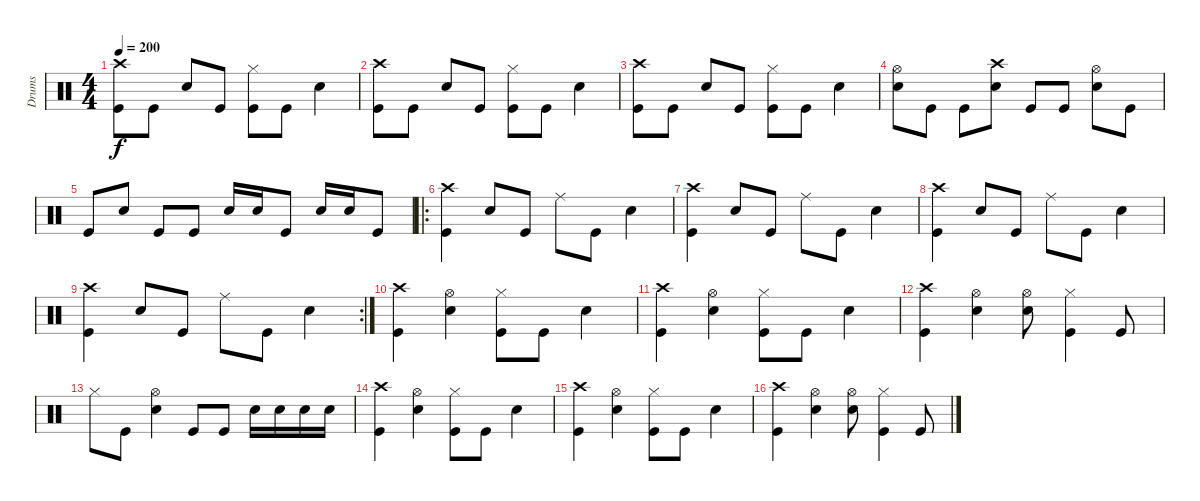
\track ("Drums" "Drums") {instrument percussion}
\staff {score}
\articulation defaults
\ts (4 4)
\tempo 200
\clef neutral
\ks c
("Crash high (hit)" "Kick (hit)").8{dy f} "Kick (hit)".8 "Snare (hit) 2".8 "Kick (hit)".8 ("Hi-Hat (closed)" "Kick (hit)").8 "Kick (hit)".8 "Snare (hit) 2".4 |
("Crash high (hit)" "Kick (hit)").8 "Kick (hit)".8 "Snare (hit) 2".8 "Kick (hit)".8 ("Hi-Hat (closed)" "Kick (hit)").8 "Kick (hit)".8 "Snare (hit) 2".4 |
("Crash high (hit)" "Kick (hit)").8 "Kick (hit)".8 "Snare (hit) 2".8 "Kick (hit)".8 ("Hi-Hat (closed)" "Kick (hit)").8 "Kick (hit)".8 "Snare (hit) 2".4 |
("Hi-Hat (open)" "Snare (hit) 2").8 "Kick (hit)".8 "Kick (hit)".8 ("Crash high (hit)" "Snare (hit) 2").8 "Kick (hit)".8 "Kick (hit)".8 ("Hi-Hat (open)" "Snare (hit) 2").8 "Kick (hit)".8 |
"Kick (hit)".8 "Snare (hit) 2".8 "Kick (hit)".8 "Kick (hit)".8 "Snare (hit) 2".16 "Snare (hit) 2".16 "Kick (hit)".8 "Snare (hit) 2".16 "Snare (hit) 2".16 "Kick (hit)".8 |
\ro
("Crash high (hit)" "Kick (hit)").4 "Snare (hit) 2".8 "Kick (hit)".8 "Ride (middle)".8 "Kick (hit)".8 "Snare (hit) 2".4 |
("Crash high (hit)" "Kick (hit)").4 "Snare (hit) 2".8 "Kick (hit)".8 "Ride (middle)".8 "Kick (hit)".8 "Snare (hit) 2".4 |
("Crash high (hit)" "Kick (hit)").4 "Snare (hit) 2".8 "Kick (hit)".8 "Ride (middle)".8 "Kick (hit)".8 "Snare (hit) 2".4 |
\rc 2
("Crash high (hit)" "Kick (hit)").4 "Snare (hit) 2".8 "Kick (hit)".8 "Ride (middle)".8 "Kick (hit)".8 "Snare (hit) 2".4 |
("Crash high (hit)" "Kick (hit)").4 ("Hi-Hat (open)" "Snare (hit) 2").4 ("Hi-Hat (closed)" "Kick (hit)").8 "Kick (hit)".8 "Snare (hit) 2".4 |
("Crash high (hit)" "Kick (hit)").4 ("Hi-Hat (open)" "Snare (hit) 2").4 ("Hi-Hat (closed)" "Kick (hit)").8 "Kick (hit)".8 "Snare (hit) 2".4 |
("Crash high (hit)" "Kick (hit)").4 ("Hi-Hat (open)" "Snare (hit) 2").4 ("Hi-Hat (open)" "Snare (hit) 2").8 ("Hi-Hat (closed)" "Kick (hit)").4 "Kick (hit)".8 |
"Hi-Hat (closed)".8 "Kick (hit)".8 ("Hi-Hat (open)" "Snare (hit) 2").4 "Kick (hit)".8 "Kick (hit)".8 "Snare (hit) 2".16 "Snare (hit) 2".16 "Snare (hit) 2".16 "Snare (hit) 2".16 |
("Crash high (hit)" "Kick (hit)").4 ("Hi-Hat (open)" "Snare (hit) 2").4 ("Hi-Hat (closed)" "Kick (hit)").8 "Kick (hit)".8 "Snare (hit) 2".4 |
("Crash high (hit)" "Kick (hit)").4 ("Hi-Hat (open)" "Snare (hit) 2").4 ("Hi-Hat (closed)" "Kick (hit)").8 "Kick (hit)".8 "Snare (hit) 2".4 |
("Crash high (hit)" "Kick (hit)").4 ("Hi-Hat (open)" "Snare (hit) 2").4 ("Hi-Hat (open)" "Snare (hit) 2").8 ("Hi-Hat (closed)" "Kick (hit)").4 "Kick (hit)".8
